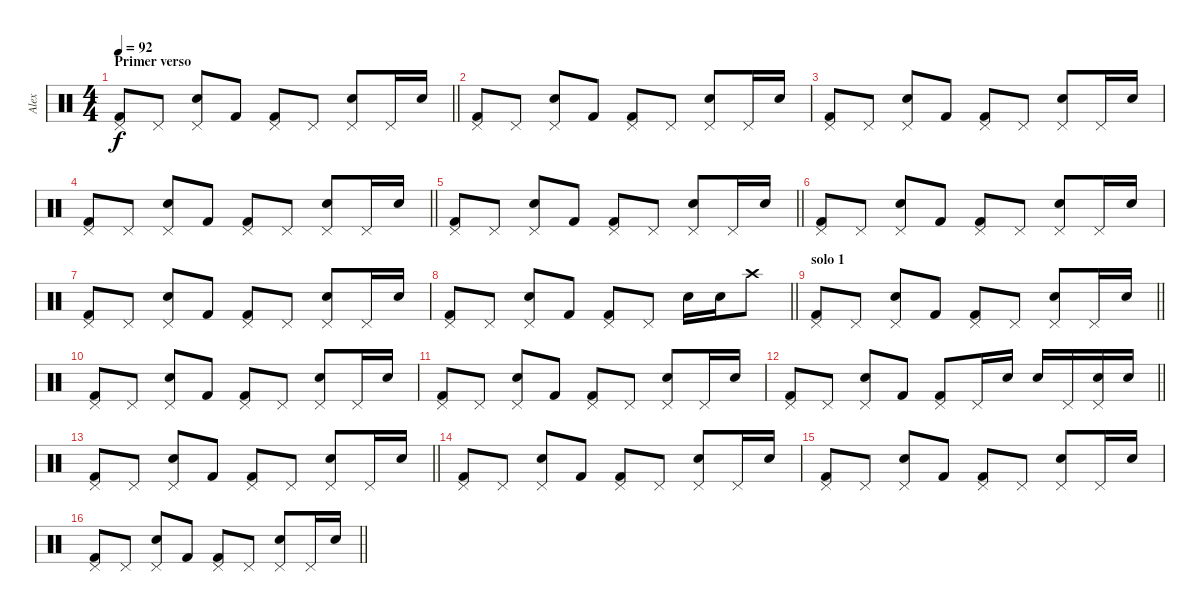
\track ("Alex" "Alex") {instrument percussion}
\staff {score}
\articulation defaults
\ts (4 4)
\section ("" "Primer verso")
\tempo 92
\clef neutral
\barLineRight lightlight
\ks c
("Pedal Hi-Hat (hit)" "Kick (hit) 2").8{dy f} "Pedal Hi-Hat (hit)".8 ("Pedal Hi-Hat (hit)" "Snare (hit) 2").8 "Kick (hit) 2".8 ("Pedal Hi-Hat (hit)" "Kick (hit) 2").8 "Pedal Hi-Hat (hit)".8 ("Pedal Hi-Hat (hit)" "Snare (hit) 2").8 "Pedal Hi-Hat (hit)".16 "Snare (hit) 2".16 |
\section ("" "")
("Pedal Hi-Hat (hit)" "Kick (hit) 2").8 "Pedal Hi-Hat (hit)".8 ("Pedal Hi-Hat (hit)" "Snare (hit) 2").8 "Kick (hit) 2".8 ("Pedal Hi-Hat (hit)" "Kick (hit) 2").8 "Pedal Hi-Hat (hit)".8 ("Pedal Hi-Hat (hit)" "Snare (hit) 2").8 "Pedal Hi-Hat (hit)".16 "Snare (hit) 2".16 |
("Pedal Hi-Hat (hit)" "Kick (hit) 2").8 "Pedal Hi-Hat (hit)".8 ("Pedal Hi-Hat (hit)" "Snare (hit) 2").8 "Kick (hit) 2".8 ("Pedal Hi-Hat (hit)" "Kick (hit) 2").8 "Pedal Hi-Hat (hit)".8 ("Pedal Hi-Hat (hit)" "Snare (hit) 2").8 "Pedal Hi-Hat (hit)".16 "Snare (hit) 2".16 |
\barLineRight lightlight
("Pedal Hi-Hat (hit)" "Kick (hit) 2").8 "Pedal Hi-Hat (hit)".8 ("Pedal Hi-Hat (hit)" "Snare (hit) 2").8 "Kick (hit) 2".8 ("Pedal Hi-Hat (hit)" "Kick (hit) 2").8 "Pedal Hi-Hat (hit)".8 ("Pedal Hi-Hat (hit)" "Snare (hit) 2").8 "Pedal Hi-Hat (hit)".16 "Snare (hit) 2".16 |
\barLineRight lightlight
("Pedal Hi-Hat (hit)" "Kick (hit) 2").8 "Pedal Hi-Hat (hit)".8 ("Pedal Hi-Hat (hit)" "Snare (hit) 2").8 "Kick (hit) 2".8 ("Pedal Hi-Hat (hit)" "Kick (hit) 2").8 "Pedal Hi-Hat (hit)".8 ("Pedal Hi-Hat (hit)" "Snare (hit) 2").8 "Pedal Hi-Hat (hit)".16 "Snare (hit) 2".16 |
("Pedal Hi-Hat (hit)" "Kick (hit) 2").8 "Pedal Hi-Hat (hit)".8 ("Pedal Hi-Hat (hit)" "Snare (hit) 2").8 "Kick (hit) 2".8 ("Pedal Hi-Hat (hit)" "Kick (hit) 2").8 "Pedal Hi-Hat (hit)".8 ("Pedal Hi-Hat (hit)" "Snare (hit) 2").8 "Pedal Hi-Hat (hit)".16 "Snare (hit) 2".16 |
("Pedal Hi-Hat (hit)" "Kick (hit) 2").8 "Pedal Hi-Hat (hit)".8 ("Pedal Hi-Hat (hit)" "Snare (hit) 2").8 "Kick (hit) 2".8 ("Pedal Hi-Hat (hit)" "Kick (hit) 2").8 "Pedal Hi-Hat (hit)".8 ("Pedal Hi-Hat (hit)" "Snare (hit) 2").8 "Pedal Hi-Hat (hit)".16 "Snare (hit) 2".16 |
\barLineRight lightlight
("Pedal Hi-Hat (hit)" "Kick (hit) 2").8 "Pedal Hi-Hat (hit)".8 ("Pedal Hi-Hat (hit)" "Snare (hit) 2").8 "Kick (hit) 2".8 ("Pedal Hi-Hat (hit)" "Kick (hit) 2").8 "Pedal Hi-Hat (hit)".8 "Snare (hit) 2".16 "Snare (hit) 2".16 "Crash high (hit)".8 |
\section ("" "solo 1")
\barLineRight lightlight
("Pedal Hi-Hat (hit)" "Kick (hit) 2").8 "Pedal Hi-Hat (hit)".8 ("Pedal Hi-Hat (hit)" "Snare (hit) 2").8 "Kick (hit) 2".8 ("Pedal Hi-Hat (hit)" "Kick (hit) 2").8 "Pedal Hi-Hat (hit)".8 ("Pedal Hi-Hat (hit)" "Snare (hit) 2").8 "Pedal Hi-Hat (hit)".16 "Snare (hit) 2".16 |
("Pedal Hi-Hat (hit)" "Kick (hit) 2").8 "Pedal Hi-Hat (hit)".8 ("Pedal Hi-Hat (hit)" "Snare (hit) 2").8 "Kick (hit) 2".8 ("Pedal Hi-Hat (hit)" "Kick (hit) 2").8 "Pedal Hi-Hat (hit)".8 ("Pedal Hi-Hat (hit)" "Snare (hit) 2").8 "Pedal Hi-Hat (hit)".16 "Snare (hit) 2".16 |
("Pedal Hi-Hat (hit)" "Kick (hit) 2").8 "Pedal Hi-Hat (hit)".8 ("Pedal Hi-Hat (hit)" "Snare (hit) 2").8 "Kick (hit) 2".8 ("Pedal Hi-Hat (hit)" "Kick (hit) 2").8 "Pedal Hi-Hat (hit)".8 ("Pedal Hi-Hat (hit)" "Snare (hit) 2").8 "Pedal Hi-Hat (hit)".16 "Snare (hit) 2".16 |
\barLineRight lightlight
("Pedal Hi-Hat (hit)" "Kick (hit) 2").8 "Pedal Hi-Hat (hit)".8 ("Pedal Hi-Hat (hit)" "Snare (hit) 2").8 "Kick (hit) 2".8 ("Kick (hit) 2" "Pedal Hi-Hat (hit)").8 "Pedal Hi-Hat (hit)".16 "Snare (hit) 2".16 "Snare (hit) 2".16 "Pedal Hi-Hat (hit)".16 ("Pedal Hi-Hat (hit)" "Snare (hit) 2").16 "Snare (hit) 2".16 |
\barLineRight lightlight
("Pedal Hi-Hat (hit)" "Kick (hit) 2").8 "Pedal Hi-Hat (hit)".8 ("Pedal Hi-Hat (hit)" "Snare (hit) 2").8 "Kick (hit) 2".8 ("Pedal Hi-Hat (hit)" "Kick (hit) 2").8 "Pedal Hi-Hat (hit)".8 ("Pedal Hi-Hat (hit)" "Snare (hit) 2").8 "Pedal Hi-Hat (hit)".16 "Snare (hit) 2".16 |
("Pedal Hi-Hat (hit)" "Kick (hit) 2").8 "Pedal Hi-Hat (hit)".8 ("Pedal Hi-Hat (hit)" "Snare (hit) 2").8 "Kick (hit) 2".8 ("Pedal Hi-Hat (hit)" "Kick (hit) 2").8 "Pedal Hi-Hat (hit)".8 ("Pedal Hi-Hat (hit)" "Snare (hit) 2").8 "Pedal Hi-Hat (hit)".16 "Snare (hit) 2".16 |
("Pedal Hi-Hat (hit)" "Kick (hit) 2").8 "Pedal Hi-Hat (hit)".8 ("Pedal Hi-Hat (hit)" "Snare (hit) 2").8 "Kick (hit) 2".8 ("Pedal Hi-Hat (hit)" "Kick (hit) 2").8 "Pedal Hi-Hat (hit)".8 ("Pedal Hi-Hat (hit)" "Snare (hit) 2").8 "Pedal Hi-Hat (hit)".16 "Snare (hit) 2".16 |
\barLineRight lightlight
("Pedal Hi-Hat (hit)" "Kick (hit) 2").8 "Pedal Hi-Hat (hit)".8 ("Pedal Hi-Hat (hit)" "Snare (hit) 2").8 "Kick (hit) 2".8 ("Pedal Hi-Hat (hit)" "Kick (hit) 2").8 "Pedal Hi-Hat (hit)".8 ("Pedal Hi-Hat (hit)" "Snare (hit) 2").8 "Pedal Hi-Hat (hit)".16 "Snare (hit) 2".16
